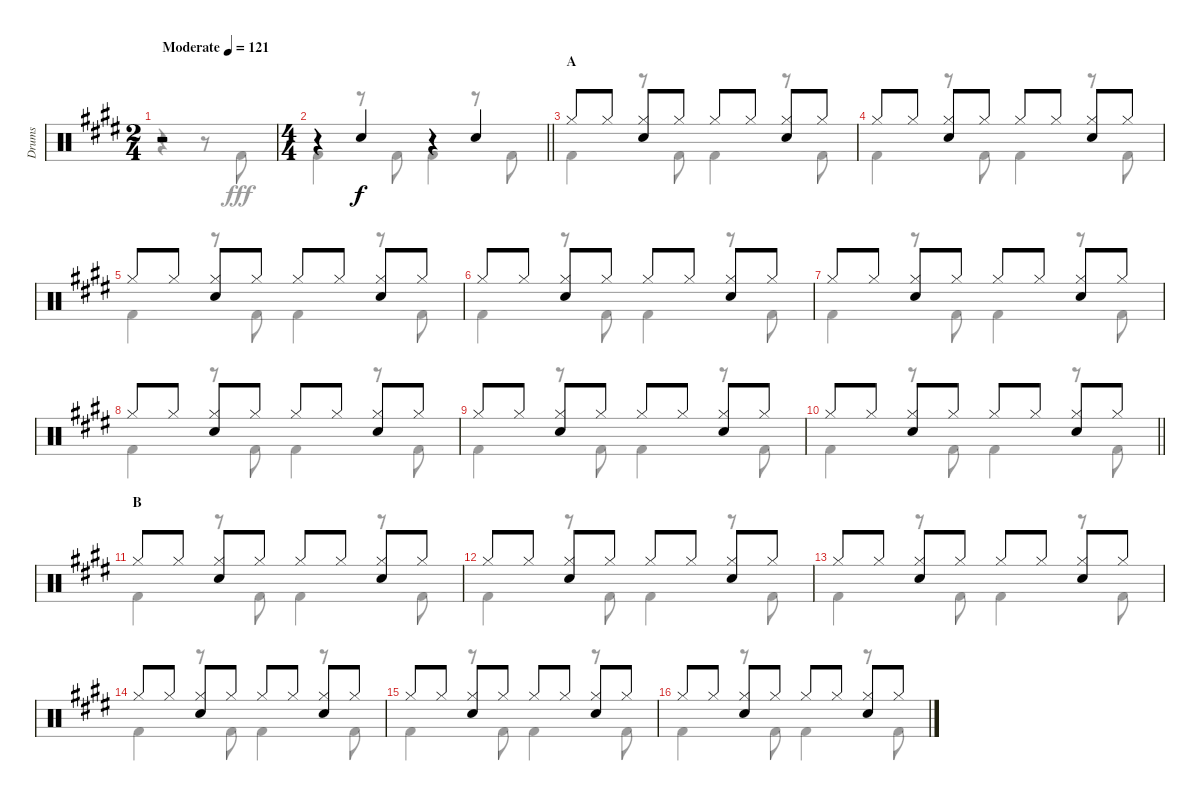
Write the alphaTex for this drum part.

\track ("Drums" "Drums") {instrument percussion}
\staff {score}
\articulation defaults
\voice
\ts (2 4)
\tempo (121 "Moderate")
\clef neutral
\ks e
r.2{dy f} |
\ts (4 4)
\barLineRight lightlight
r.4 "Snare (hit) 2".4 r.4 "Snare (hit) 2".4 |
\section ("" "A")
"Hi-Hat (closed)".8 "Hi-Hat (closed)".8 ("Hi-Hat (closed)" "Snare (hit) 2").8 "Hi-Hat (closed)".8 "Hi-Hat (closed)".8 "Hi-Hat (closed)".8 ("Hi-Hat (closed)" "Snare (hit) 2").8 "Hi-Hat (closed)".8 |
"Hi-Hat (closed)".8 "Hi-Hat (closed)".8 ("Hi-Hat (closed)" "Snare (hit) 2").8 "Hi-Hat (closed)".8 "Hi-Hat (closed)".8 "Hi-Hat (closed)".8 ("Hi-Hat (closed)" "Snare (hit) 2").8 "Hi-Hat (closed)".8 |
"Hi-Hat (closed)".8 "Hi-Hat (closed)".8 ("Hi-Hat (closed)" "Snare (hit) 2").8 "Hi-Hat (closed)".8 "Hi-Hat (closed)".8 "Hi-Hat (closed)".8 ("Hi-Hat (closed)" "Snare (hit) 2").8 "Hi-Hat (closed)".8 |
"Hi-Hat (closed)".8 "Hi-Hat (closed)".8 ("Hi-Hat (closed)" "Snare (hit) 2").8 "Hi-Hat (closed)".8 "Hi-Hat (closed)".8 "Hi-Hat (closed)".8 ("Hi-Hat (closed)" "Snare (hit) 2").8 "Hi-Hat (closed)".8 |
"Hi-Hat (closed)".8 "Hi-Hat (closed)".8 ("Hi-Hat (closed)" "Snare (hit) 2").8 "Hi-Hat (closed)".8 "Hi-Hat (closed)".8 "Hi-Hat (closed)".8 ("Hi-Hat (closed)" "Snare (hit) 2").8 "Hi-Hat (closed)".8 |
"Hi-Hat (closed)".8 "Hi-Hat (closed)".8 ("Hi-Hat (closed)" "Snare (hit) 2").8 "Hi-Hat (closed)".8 "Hi-Hat (closed)".8 "Hi-Hat (closed)".8 ("Hi-Hat (closed)" "Snare (hit) 2").8 "Hi-Hat (closed)".8 |
"Hi-Hat (closed)".8 "Hi-Hat (closed)".8 ("Hi-Hat (closed)" "Snare (hit) 2").8 "Hi-Hat (closed)".8 "Hi-Hat (closed)".8 "Hi-Hat (closed)".8 ("Hi-Hat (closed)" "Snare (hit) 2").8 "Hi-Hat (closed)".8 |
\barLineRight lightlight "Hi-Hat (closed)".8 "Hi-Hat (closed)".8
("Hi-Hat (closed)" "Snare (hit) 2").8 "Hi-Hat (closed)".8 "Hi-Hat (closed)".8 "Hi-Hat (closed)".8 ("Hi-Hat (closed)" "Snare (hit) 2").8 "Hi-Hat (closed)".8 |
\section ("" "B")
"Hi-Hat (closed)".8 "Hi-Hat (closed)".8 ("Hi-Hat (closed)" "Snare (hit) 2").8 "Hi-Hat (closed)".8 "Hi-Hat (closed)".8 "Hi-Hat (closed)".8 ("Hi-Hat (closed)" "Snare (hit) 2").8 "Hi-Hat (closed)".8 |
"Hi-Hat (closed)".8 "Hi-Hat (closed)".8 ("Hi-Hat (closed)" "Snare (hit) 2").8 "Hi-Hat (closed)".8 "Hi-Hat (closed)".8 "Hi-Hat (closed)".8 ("Hi-Hat (closed)" "Snare (hit) 2").8 "Hi-Hat (closed)".8 |
"Hi-Hat (closed)".8 "Hi-Hat (closed)".8 ("Hi-Hat (closed)" "Snare (hit) 2").8 "Hi-Hat (closed)".8 "Hi-Hat (closed)".8 "Hi-Hat (closed)".8 ("Hi-Hat (closed)" "Snare (hit) 2").8 "Hi-Hat (closed)".8 |
"Hi-Hat (closed)".8 "Hi-Hat (closed)".8 ("Hi-Hat (closed)" "Snare (hit) 2").8 "Hi-Hat (closed)".8 "Hi-Hat (closed)".8 "Hi-Hat (closed)".8 ("Hi-Hat (closed)" "Snare (hit) 2").8 "Hi-Hat (closed)".8 |
"Hi-Hat (closed)".8 "Hi-Hat (closed)".8 ("Hi-Hat (closed)" "Snare (hit) 2").8 "Hi-Hat (closed)".8 "Hi-Hat (closed)".8 "Hi-Hat (closed)".8 ("Hi-Hat (closed)" "Snare (hit) 2").8 "Hi-Hat (closed)".8 |
"Hi-Hat (closed)".8 "Hi-Hat (closed)".8 ("Hi-Hat (closed)" "Snare (hit) 2").8 "Hi-Hat (closed)".8 "Hi-Hat (closed)".8 "Hi-Hat (closed)".8 ("Hi-Hat (closed)" "Snare (hit) 2").8 "Hi-Hat (closed)".8
\voice
\clef neutral
\ottava regular
\simile none
\ks e
r.4{dy fff} r.8 "Kick (hit) 2".8 |
\barLineRight lightlight "Kick (hit) 2".4
r.8 "Kick (hit) 2".8 "Kick (hit) 2".4 r.8 "Kick (hit) 2".8 |
"Kick (hit) 2".4 r.8 "Kick (hit) 2".8 "Kick (hit) 2".4 r.8 "Kick (hit) 2".8 |
"Kick (hit) 2".4 r.8 "Kick (hit) 2".8 "Kick (hit) 2".4 r.8 "Kick (hit) 2".8 |
"Kick (hit) 2".4 r.8 "Kick (hit) 2".8 "Kick (hit) 2".4 r.8 "Kick (hit) 2".8 |
"Kick (hit) 2".4 r.8 "Kick (hit) 2".8 "Kick (hit) 2".4 r.8 "Kick (hit) 2".8 |
"Kick (hit) 2".4 r.8 "Kick (hit) 2".8 "Kick (hit) 2".4 r.8 "Kick (hit) 2".8 |
"Kick (hit) 2".4 r.8 "Kick (hit) 2".8 "Kick (hit) 2".4 r.8 "Kick (hit) 2".8 |
"Kick (hit) 2".4 r.8 "Kick (hit) 2".8 "Kick (hit) 2".4 r.8 "Kick (hit) 2".8 |
\barLineRight lightlight "Kick (hit) 2".4
r.8 "Kick (hit) 2".8 "Kick (hit) 2".4 r.8 "Kick (hit) 2".8 |
"Kick (hit) 2".4 r.8 "Kick (hit) 2".8 "Kick (hit) 2".4 r.8 "Kick (hit) 2".8 |
"Kick (hit) 2".4 r.8 "Kick (hit) 2".8 "Kick (hit) 2".4 r.8 "Kick (hit) 2".8 |
"Kick (hit) 2".4 r.8 "Kick (hit) 2".8 "Kick (hit) 2".4 r.8 "Kick (hit) 2".8 |
"Kick (hit) 2".4 r.8 "Kick (hit) 2".8 "Kick (hit) 2".4 r.8 "Kick (hit) 2".8 |
"Kick (hit) 2".4 r.8 "Kick (hit) 2".8 "Kick (hit) 2".4 r.8 "Kick (hit) 2".8 |
"Kick (hit) 2".4 r.8 "Kick (hit) 2".8 "Kick (hit) 2".4 r.8 "Kick (hit) 2".8
